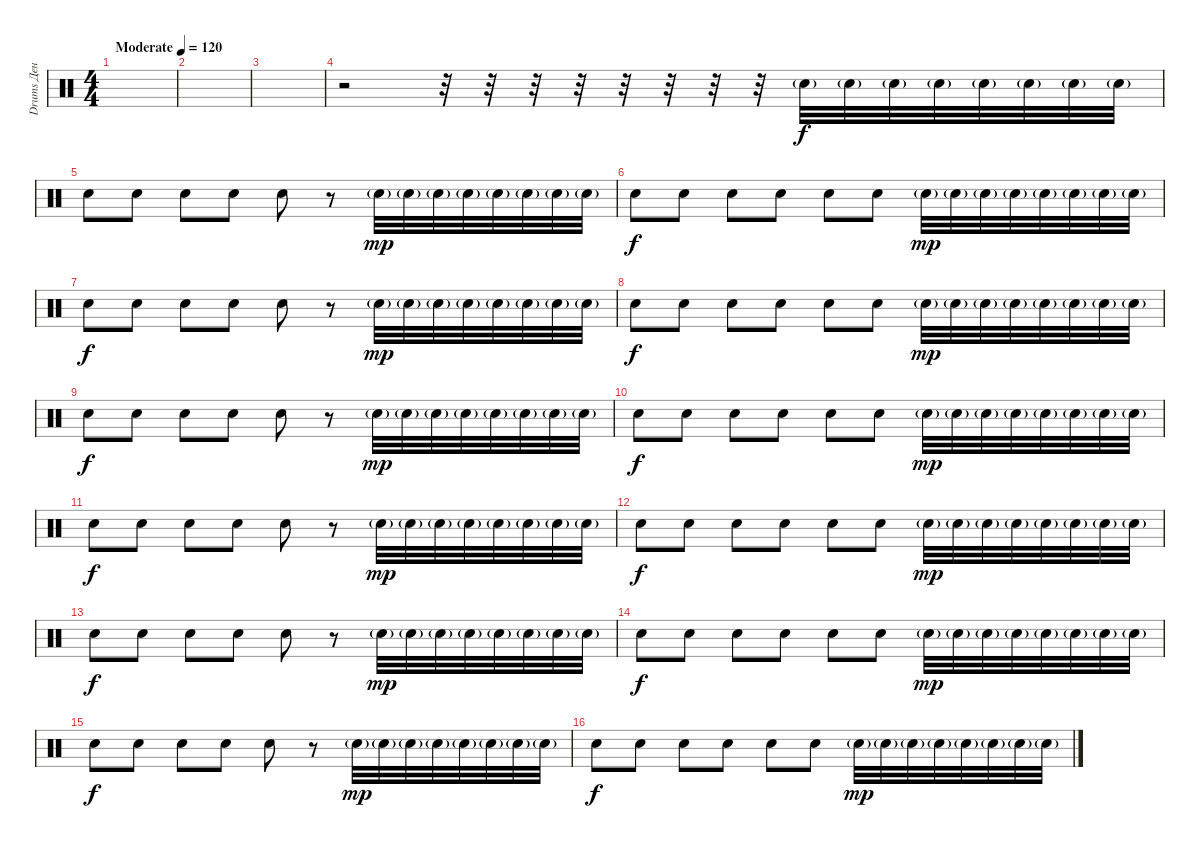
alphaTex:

\track ("Drums Ден" "Drums Ден") {instrument percussion}
\staff {score}
\articulation defaults
\ts (4 4)
\tempo (120 "Moderate")
\clef neutral
\ks c
|
|
|
r.2 r.32 r.32 r.32 r.32 r.32 r.32 r.32 r.32 "Electric Snare (hit)"{g}.32 "Electric Snare (hit)"{g}.32 "Electric Snare (hit)"{g}.32 "Electric Snare (hit)"{g}.32 "Electric Snare (hit)"{g}.32 "Electric Snare (hit)"{g}.32 "Electric Snare (hit)"{g}.32 "Electric Snare (hit)"{g}.32 |
"Electric Snare (hit)".8{dy f} "Electric Snare (hit)".8 "Electric Snare (hit)".8 "Electric Snare (hit)".8 "Electric Snare (hit)".8 r.8 "Electric Snare (hit)"{g}.32{dy mp} "Electric Snare (hit)"{g}.32 "Electric Snare (hit)"{g}.32 "Electric Snare (hit)"{g}.32 "Electric Snare (hit)"{g}.32 "Electric Snare (hit)"{g}.32 "Electric Snare (hit)"{g}.32 "Electric Snare (hit)"{g}.32 |
"Electric Snare (hit)".8{dy f} "Electric Snare (hit)".8 "Electric Snare (hit)".8 "Electric Snare (hit)".8 "Electric Snare (hit)".8 "Electric Snare (hit)".8 "Electric Snare (hit)"{g}.32{dy mp} "Electric Snare (hit)"{g}.32 "Electric Snare (hit)"{g}.32 "Electric Snare (hit)"{g}.32 "Electric Snare (hit)"{g}.32 "Electric Snare (hit)"{g}.32 "Electric Snare (hit)"{g}.32 "Electric Snare (hit)"{g}.32 |
"Electric Snare (hit)".8{dy f} "Electric Snare (hit)".8 "Electric Snare (hit)".8 "Electric Snare (hit)".8 "Electric Snare (hit)".8 r.8 "Electric Snare (hit)"{g}.32{dy mp} "Electric Snare (hit)"{g}.32 "Electric Snare (hit)"{g}.32 "Electric Snare (hit)"{g}.32 "Electric Snare (hit)"{g}.32 "Electric Snare (hit)"{g}.32 "Electric Snare (hit)"{g}.32 "Electric Snare (hit)"{g}.32 |
"Electric Snare (hit)".8{dy f} "Electric Snare (hit)".8 "Electric Snare (hit)".8 "Electric Snare (hit)".8 "Electric Snare (hit)".8 "Electric Snare (hit)".8 "Electric Snare (hit)"{g}.32{dy mp} "Electric Snare (hit)"{g}.32 "Electric Snare (hit)"{g}.32 "Electric Snare (hit)"{g}.32 "Electric Snare (hit)"{g}.32 "Electric Snare (hit)"{g}.32 "Electric Snare (hit)"{g}.32 "Electric Snare (hit)"{g}.32 |
"Electric Snare (hit)".8{dy f} "Electric Snare (hit)".8 "Electric Snare (hit)".8 "Electric Snare (hit)".8 "Electric Snare (hit)".8 r.8 "Electric Snare (hit)"{g}.32{dy mp} "Electric Snare (hit)"{g}.32 "Electric Snare (hit)"{g}.32 "Electric Snare (hit)"{g}.32 "Electric Snare (hit)"{g}.32 "Electric Snare (hit)"{g}.32 "Electric Snare (hit)"{g}.32 "Electric Snare (hit)"{g}.32 |
"Electric Snare (hit)".8{dy f} "Electric Snare (hit)".8 "Electric Snare (hit)".8 "Electric Snare (hit)".8 "Electric Snare (hit)".8 "Electric Snare (hit)".8 "Electric Snare (hit)"{g}.32{dy mp} "Electric Snare (hit)"{g}.32 "Electric Snare (hit)"{g}.32 "Electric Snare (hit)"{g}.32 "Electric Snare (hit)"{g}.32 "Electric Snare (hit)"{g}.32 "Electric Snare (hit)"{g}.32 "Electric Snare (hit)"{g}.32 |
"Electric Snare (hit)".8{dy f} "Electric Snare (hit)".8 "Electric Snare (hit)".8 "Electric Snare (hit)".8 "Electric Snare (hit)".8 r.8 "Electric Snare (hit)"{g}.32{dy mp} "Electric Snare (hit)"{g}.32 "Electric Snare (hit)"{g}.32 "Electric Snare (hit)"{g}.32 "Electric Snare (hit)"{g}.32 "Electric Snare (hit)"{g}.32 "Electric Snare (hit)"{g}.32 "Electric Snare (hit)"{g}.32 |
"Electric Snare (hit)".8{dy f} "Electric Snare (hit)".8 "Electric Snare (hit)".8 "Electric Snare (hit)".8 "Electric Snare (hit)".8 "Electric Snare (hit)".8 "Electric Snare (hit)"{g}.32{dy mp} "Electric Snare (hit)"{g}.32 "Electric Snare (hit)"{g}.32 "Electric Snare (hit)"{g}.32 "Electric Snare (hit)"{g}.32 "Electric Snare (hit)"{g}.32 "Electric Snare (hit)"{g}.32 "Electric Snare (hit)"{g}.32 |
"Electric Snare (hit)".8{dy f} "Electric Snare (hit)".8 "Electric Snare (hit)".8 "Electric Snare (hit)".8 "Electric Snare (hit)".8 r.8 "Electric Snare (hit)"{g}.32{dy mp} "Electric Snare (hit)"{g}.32 "Electric Snare (hit)"{g}.32 "Electric Snare (hit)"{g}.32 "Electric Snare (hit)"{g}.32 "Electric Snare (hit)"{g}.32 "Electric Snare (hit)"{g}.32 "Electric Snare (hit)"{g}.32 |
"Electric Snare (hit)".8{dy f} "Electric Snare (hit)".8 "Electric Snare (hit)".8 "Electric Snare (hit)".8 "Electric Snare (hit)".8 "Electric Snare (hit)".8 "Electric Snare (hit)"{g}.32{dy mp} "Electric Snare (hit)"{g}.32 "Electric Snare (hit)"{g}.32 "Electric Snare (hit)"{g}.32 "Electric Snare (hit)"{g}.32 "Electric Snare (hit)"{g}.32 "Electric Snare (hit)"{g}.32 "Electric Snare (hit)"{g}.32 |
"Electric Snare (hit)".8{dy f} "Electric Snare (hit)".8 "Electric Snare (hit)".8 "Electric Snare (hit)".8 "Electric Snare (hit)".8 r.8 "Electric Snare (hit)"{g}.32{dy mp} "Electric Snare (hit)"{g}.32 "Electric Snare (hit)"{g}.32 "Electric Snare (hit)"{g}.32 "Electric Snare (hit)"{g}.32 "Electric Snare (hit)"{g}.32 "Electric Snare (hit)"{g}.32 "Electric Snare (hit)"{g}.32 |
"Electric Snare (hit)".8{dy f} "Electric Snare (hit)".8 "Electric Snare (hit)".8 "Electric Snare (hit)".8 "Electric Snare (hit)".8 "Electric Snare (hit)".8 "Electric Snare (hit)"{g}.32{dy mp} "Electric Snare (hit)"{g}.32 "Electric Snare (hit)"{g}.32 "Electric Snare (hit)"{g}.32 "Electric Snare (hit)"{g}.32 "Electric Snare (hit)"{g}.32 "Electric Snare (hit)"{g}.32 "Electric Snare (hit)"{g}.32
